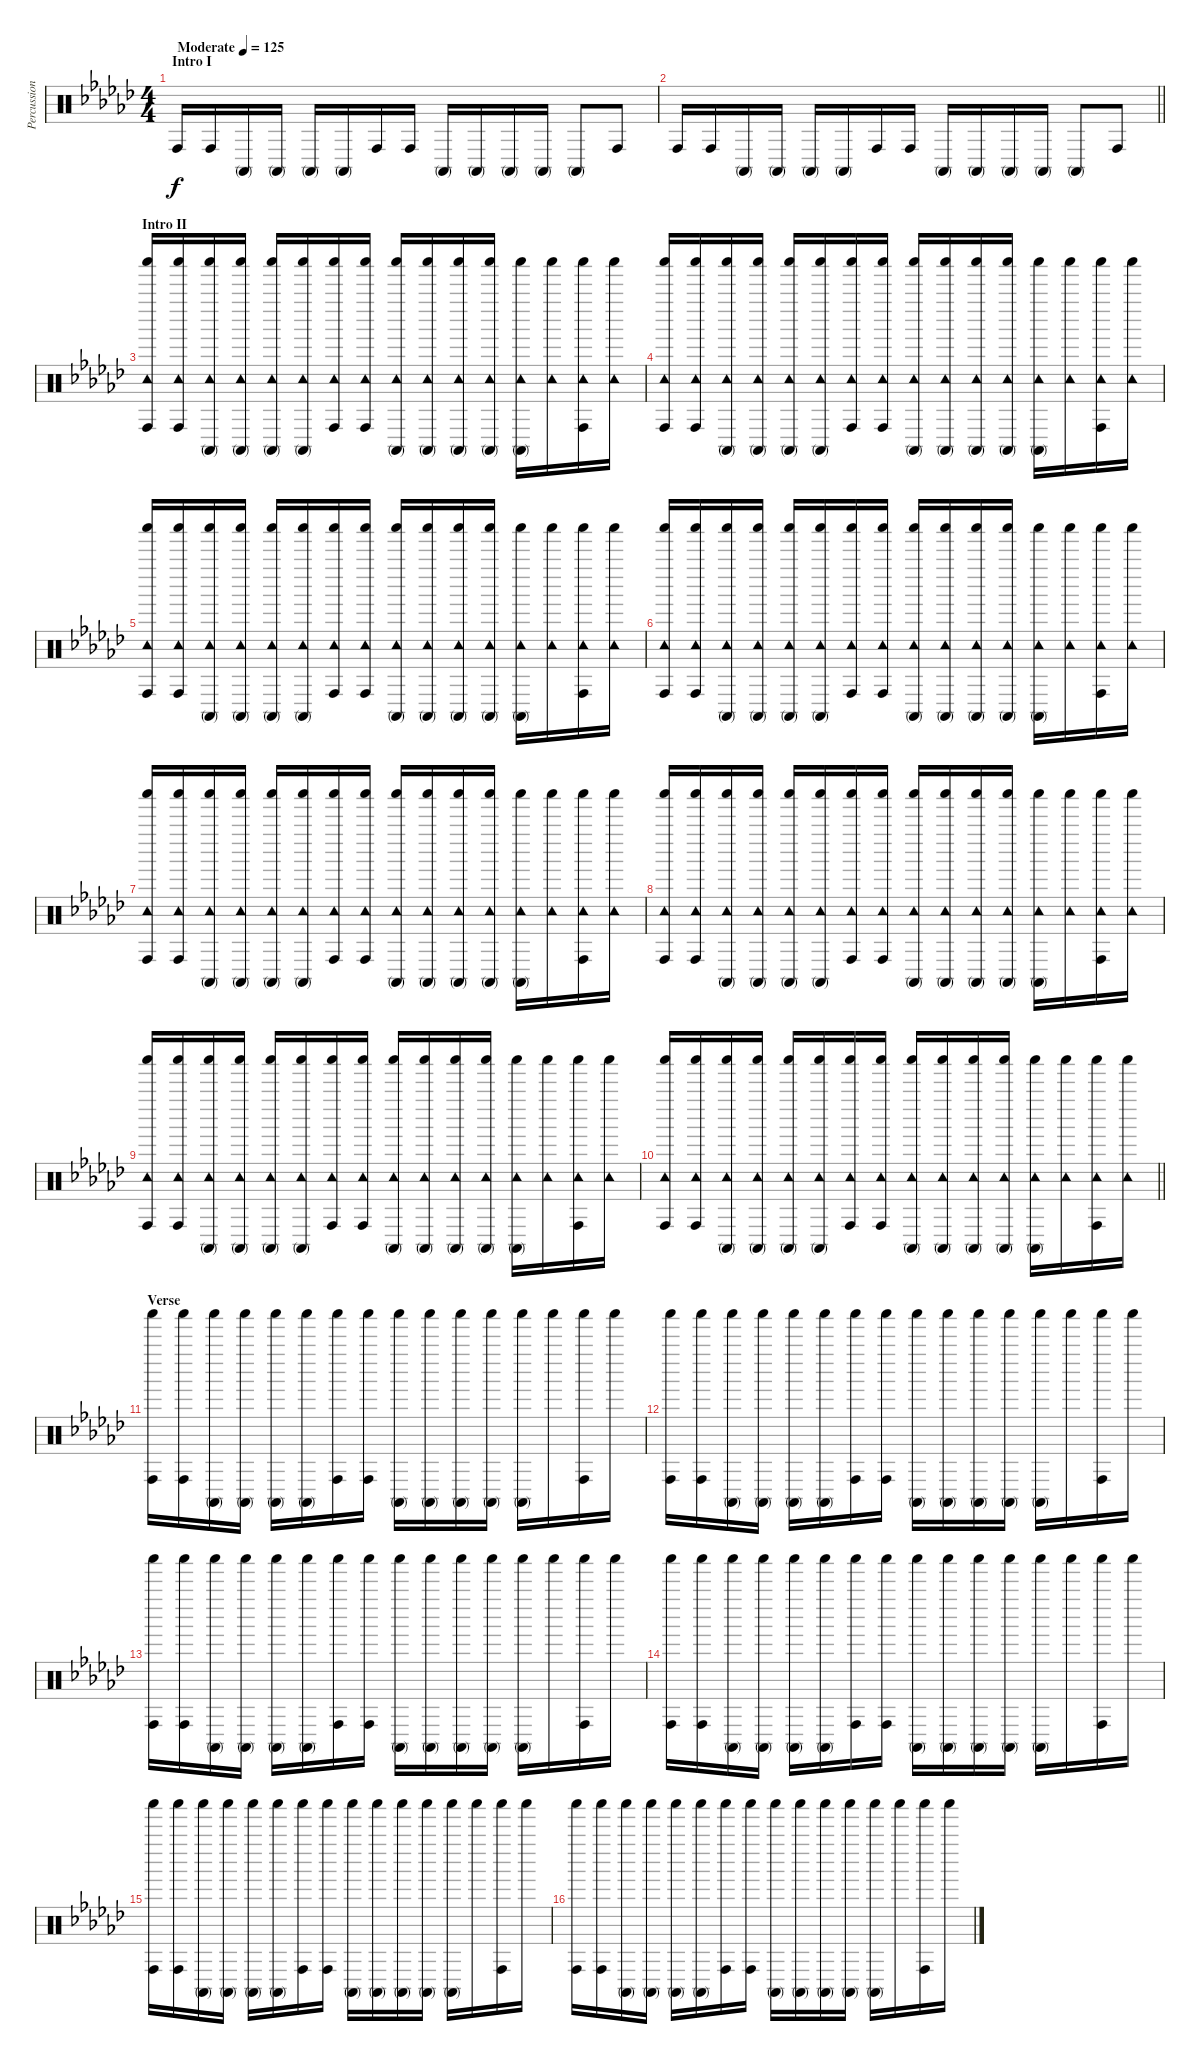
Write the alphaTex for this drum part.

\track ("Percussion" "Percussion") {instrument percussion}
\staff {score}
\articulation defaults
\ts (4 4)
\section ("" "Intro I")
\tempo (125 "Moderate")
\clef neutral
\ks gb "Conga high (hit)".16{dy f} "Conga high (hit)".16 "Conga high (mute)".16 "Conga high (mute)".16 "Conga high (mute)".16 "Conga high (mute)".16 "Conga high (hit)".16 "Conga high (hit)".16 "Conga high (mute)".16 "Conga high (mute)".16 "Conga high (mute)".16 "Conga high (mute)".16 "Conga high (mute)".8 "Conga high (hit)".8
|
\barLineRight lightlight "Conga high (hit)".16 "Conga high (hit)".16 "Conga high (mute)".16 "Conga high (mute)".16 "Conga high (mute)".16 "Conga high (mute)".16 "Conga high (hit)".16 "Conga high (hit)".16 "Conga high (mute)".16 "Conga high (mute)".16 "Conga high (mute)".16 "Conga high (mute)".16 "Conga high (mute)".8 "Conga high (hit)".8
|
\section ("" "Intro II")
("Shaker (hit)" "Tambourine (hit)" "Conga high (hit)").16 ("Shaker (hit)" "Tambourine (hit)" "Conga high (hit)").16 ("Shaker (hit)" "Tambourine (hit)" "Conga high (mute)").16 ("Shaker (hit)" "Tambourine (hit)" "Conga high (mute)").16 ("Shaker (hit)" "Tambourine (hit)" "Conga high (mute)").16 ("Shaker (hit)" "Tambourine (hit)" "Conga high (mute)").16 ("Shaker (hit)" "Tambourine (hit)" "Conga high (hit)").16 ("Shaker (hit)" "Tambourine (hit)" "Conga high (hit)").16 ("Shaker (hit)" "Tambourine (hit)" "Conga high (mute)").16 ("Shaker (hit)" "Tambourine (hit)" "Conga high (mute)").16 ("Shaker (hit)" "Tambourine (hit)" "Conga high (mute)").16 ("Shaker (hit)" "Tambourine (hit)" "Conga high (mute)").16 ("Shaker (hit)" "Tambourine (hit)" "Conga high (mute)").16 ("Shaker (hit)" "Tambourine (hit)").16 ("Shaker (hit)" "Tambourine (hit)" "Conga high (hit)").16 ("Shaker (hit)" "Tambourine (hit)").16 |
("Shaker (hit)" "Tambourine (hit)" "Conga high (hit)").16 ("Shaker (hit)" "Tambourine (hit)" "Conga high (hit)").16 ("Shaker (hit)" "Tambourine (hit)" "Conga high (mute)").16 ("Shaker (hit)" "Tambourine (hit)" "Conga high (mute)").16 ("Shaker (hit)" "Tambourine (hit)" "Conga high (mute)").16 ("Shaker (hit)" "Tambourine (hit)" "Conga high (mute)").16 ("Shaker (hit)" "Tambourine (hit)" "Conga high (hit)").16 ("Shaker (hit)" "Tambourine (hit)" "Conga high (hit)").16 ("Shaker (hit)" "Tambourine (hit)" "Conga high (mute)").16 ("Shaker (hit)" "Tambourine (hit)" "Conga high (mute)").16 ("Shaker (hit)" "Tambourine (hit)" "Conga high (mute)").16 ("Shaker (hit)" "Tambourine (hit)" "Conga high (mute)").16 ("Shaker (hit)" "Tambourine (hit)" "Conga high (mute)").16 ("Shaker (hit)" "Tambourine (hit)").16 ("Shaker (hit)" "Tambourine (hit)" "Conga high (hit)").16 ("Shaker (hit)" "Tambourine (hit)").16 |
("Shaker (hit)" "Tambourine (hit)" "Conga high (hit)").16 ("Shaker (hit)" "Tambourine (hit)" "Conga high (hit)").16 ("Shaker (hit)" "Tambourine (hit)" "Conga high (mute)").16 ("Shaker (hit)" "Tambourine (hit)" "Conga high (mute)").16 ("Shaker (hit)" "Tambourine (hit)" "Conga high (mute)").16 ("Shaker (hit)" "Tambourine (hit)" "Conga high (mute)").16 ("Shaker (hit)" "Tambourine (hit)" "Conga high (hit)").16 ("Shaker (hit)" "Tambourine (hit)" "Conga high (hit)").16 ("Shaker (hit)" "Tambourine (hit)" "Conga high (mute)").16 ("Shaker (hit)" "Tambourine (hit)" "Conga high (mute)").16 ("Shaker (hit)" "Tambourine (hit)" "Conga high (mute)").16 ("Shaker (hit)" "Tambourine (hit)" "Conga high (mute)").16 ("Shaker (hit)" "Tambourine (hit)" "Conga high (mute)").16 ("Shaker (hit)" "Tambourine (hit)").16 ("Shaker (hit)" "Tambourine (hit)" "Conga high (hit)").16 ("Shaker (hit)" "Tambourine (hit)").16 |
("Shaker (hit)" "Tambourine (hit)" "Conga high (hit)").16 ("Shaker (hit)" "Tambourine (hit)" "Conga high (hit)").16 ("Shaker (hit)" "Tambourine (hit)" "Conga high (mute)").16 ("Shaker (hit)" "Tambourine (hit)" "Conga high (mute)").16 ("Shaker (hit)" "Tambourine (hit)" "Conga high (mute)").16 ("Shaker (hit)" "Tambourine (hit)" "Conga high (mute)").16 ("Shaker (hit)" "Tambourine (hit)" "Conga high (hit)").16 ("Shaker (hit)" "Tambourine (hit)" "Conga high (hit)").16 ("Shaker (hit)" "Tambourine (hit)" "Conga high (mute)").16 ("Shaker (hit)" "Tambourine (hit)" "Conga high (mute)").16 ("Shaker (hit)" "Tambourine (hit)" "Conga high (mute)").16 ("Shaker (hit)" "Tambourine (hit)" "Conga high (mute)").16 ("Shaker (hit)" "Tambourine (hit)" "Conga high (mute)").16 ("Shaker (hit)" "Tambourine (hit)").16 ("Shaker (hit)" "Tambourine (hit)" "Conga high (hit)").16 ("Shaker (hit)" "Tambourine (hit)").16 |
("Shaker (hit)" "Tambourine (hit)" "Conga high (hit)").16 ("Shaker (hit)" "Tambourine (hit)" "Conga high (hit)").16 ("Shaker (hit)" "Tambourine (hit)" "Conga high (mute)").16 ("Shaker (hit)" "Tambourine (hit)" "Conga high (mute)").16 ("Shaker (hit)" "Tambourine (hit)" "Conga high (mute)").16 ("Shaker (hit)" "Tambourine (hit)" "Conga high (mute)").16 ("Shaker (hit)" "Tambourine (hit)" "Conga high (hit)").16 ("Shaker (hit)" "Tambourine (hit)" "Conga high (hit)").16 ("Shaker (hit)" "Tambourine (hit)" "Conga high (mute)").16 ("Shaker (hit)" "Tambourine (hit)" "Conga high (mute)").16 ("Shaker (hit)" "Tambourine (hit)" "Conga high (mute)").16 ("Shaker (hit)" "Tambourine (hit)" "Conga high (mute)").16 ("Shaker (hit)" "Tambourine (hit)" "Conga high (mute)").16 ("Shaker (hit)" "Tambourine (hit)").16 ("Shaker (hit)" "Tambourine (hit)" "Conga high (hit)").16 ("Shaker (hit)" "Tambourine (hit)").16 |
("Shaker (hit)" "Tambourine (hit)" "Conga high (hit)").16 ("Shaker (hit)" "Tambourine (hit)" "Conga high (hit)").16 ("Shaker (hit)" "Tambourine (hit)" "Conga high (mute)").16 ("Shaker (hit)" "Tambourine (hit)" "Conga high (mute)").16 ("Shaker (hit)" "Tambourine (hit)" "Conga high (mute)").16 ("Shaker (hit)" "Tambourine (hit)" "Conga high (mute)").16 ("Shaker (hit)" "Tambourine (hit)" "Conga high (hit)").16 ("Shaker (hit)" "Tambourine (hit)" "Conga high (hit)").16 ("Shaker (hit)" "Tambourine (hit)" "Conga high (mute)").16 ("Shaker (hit)" "Tambourine (hit)" "Conga high (mute)").16 ("Shaker (hit)" "Tambourine (hit)" "Conga high (mute)").16 ("Shaker (hit)" "Tambourine (hit)" "Conga high (mute)").16 ("Shaker (hit)" "Tambourine (hit)" "Conga high (mute)").16 ("Shaker (hit)" "Tambourine (hit)").16 ("Shaker (hit)" "Tambourine (hit)" "Conga high (hit)").16 ("Shaker (hit)" "Tambourine (hit)").16 |
("Shaker (hit)" "Tambourine (hit)" "Conga high (hit)").16 ("Shaker (hit)" "Tambourine (hit)" "Conga high (hit)").16 ("Shaker (hit)" "Tambourine (hit)" "Conga high (mute)").16 ("Shaker (hit)" "Tambourine (hit)" "Conga high (mute)").16 ("Shaker (hit)" "Tambourine (hit)" "Conga high (mute)").16 ("Shaker (hit)" "Tambourine (hit)" "Conga high (mute)").16 ("Shaker (hit)" "Tambourine (hit)" "Conga high (hit)").16 ("Shaker (hit)" "Tambourine (hit)" "Conga high (hit)").16 ("Shaker (hit)" "Tambourine (hit)" "Conga high (mute)").16 ("Shaker (hit)" "Tambourine (hit)" "Conga high (mute)").16 ("Shaker (hit)" "Tambourine (hit)" "Conga high (mute)").16 ("Shaker (hit)" "Tambourine (hit)" "Conga high (mute)").16 ("Shaker (hit)" "Tambourine (hit)" "Conga high (mute)").16 ("Shaker (hit)" "Tambourine (hit)").16 ("Shaker (hit)" "Tambourine (hit)" "Conga high (hit)").16 ("Shaker (hit)" "Tambourine (hit)").16 |
\barLineRight lightlight
("Shaker (hit)" "Tambourine (hit)" "Conga high (hit)").16 ("Shaker (hit)" "Tambourine (hit)" "Conga high (hit)").16 ("Shaker (hit)" "Tambourine (hit)" "Conga high (mute)").16 ("Shaker (hit)" "Tambourine (hit)" "Conga high (mute)").16 ("Shaker (hit)" "Tambourine (hit)" "Conga high (mute)").16 ("Shaker (hit)" "Tambourine (hit)" "Conga high (mute)").16 ("Shaker (hit)" "Tambourine (hit)" "Conga high (hit)").16 ("Shaker (hit)" "Tambourine (hit)" "Conga high (hit)").16 ("Shaker (hit)" "Tambourine (hit)" "Conga high (mute)").16 ("Shaker (hit)" "Tambourine (hit)" "Conga high (mute)").16 ("Shaker (hit)" "Tambourine (hit)" "Conga high (mute)").16 ("Shaker (hit)" "Tambourine (hit)" "Conga high (mute)").16 ("Shaker (hit)" "Tambourine (hit)" "Conga high (mute)").16 ("Shaker (hit)" "Tambourine (hit)").16 ("Shaker (hit)" "Tambourine (hit)" "Conga high (hit)").16 ("Shaker (hit)" "Tambourine (hit)").16 |
\section ("" "Verse")
("Shaker (hit)" "Conga high (hit)").16 ("Shaker (hit)" "Conga high (hit)").16 ("Shaker (hit)" "Conga high (mute)").16 ("Shaker (hit)" "Conga high (mute)").16 ("Shaker (hit)" "Conga high (mute)").16 ("Shaker (hit)" "Conga high (mute)").16 ("Shaker (hit)" "Conga high (hit)").16 ("Shaker (hit)" "Conga high (hit)").16 ("Shaker (hit)" "Conga high (mute)").16 ("Shaker (hit)" "Conga high (mute)").16 ("Shaker (hit)" "Conga high (mute)").16 ("Shaker (hit)" "Conga high (mute)").16 ("Shaker (hit)" "Conga high (mute)").16 "Shaker (hit)".16 ("Shaker (hit)" "Conga high (hit)").16 "Shaker (hit)".16 |
("Shaker (hit)" "Conga high (hit)").16 ("Shaker (hit)" "Conga high (hit)").16 ("Shaker (hit)" "Conga high (mute)").16 ("Shaker (hit)" "Conga high (mute)").16 ("Shaker (hit)" "Conga high (mute)").16 ("Shaker (hit)" "Conga high (mute)").16 ("Shaker (hit)" "Conga high (hit)").16 ("Shaker (hit)" "Conga high (hit)").16 ("Shaker (hit)" "Conga high (mute)").16 ("Shaker (hit)" "Conga high (mute)").16 ("Shaker (hit)" "Conga high (mute)").16 ("Shaker (hit)" "Conga high (mute)").16 ("Shaker (hit)" "Conga high (mute)").16 "Shaker (hit)".16 ("Shaker (hit)" "Conga high (hit)").16 "Shaker (hit)".16 |
("Shaker (hit)" "Conga high (hit)").16 ("Shaker (hit)" "Conga high (hit)").16 ("Shaker (hit)" "Conga high (mute)").16 ("Shaker (hit)" "Conga high (mute)").16 ("Shaker (hit)" "Conga high (mute)").16 ("Shaker (hit)" "Conga high (mute)").16 ("Shaker (hit)" "Conga high (hit)").16 ("Shaker (hit)" "Conga high (hit)").16 ("Shaker (hit)" "Conga high (mute)").16 ("Shaker (hit)" "Conga high (mute)").16 ("Shaker (hit)" "Conga high (mute)").16 ("Shaker (hit)" "Conga high (mute)").16 ("Shaker (hit)" "Conga high (mute)").16 "Shaker (hit)".16 ("Shaker (hit)" "Conga high (hit)").16 "Shaker (hit)".16 |
("Shaker (hit)" "Conga high (hit)").16 ("Shaker (hit)" "Conga high (hit)").16 ("Shaker (hit)" "Conga high (mute)").16 ("Shaker (hit)" "Conga high (mute)").16 ("Shaker (hit)" "Conga high (mute)").16 ("Shaker (hit)" "Conga high (mute)").16 ("Shaker (hit)" "Conga high (hit)").16 ("Shaker (hit)" "Conga high (hit)").16 ("Shaker (hit)" "Conga high (mute)").16 ("Shaker (hit)" "Conga high (mute)").16 ("Shaker (hit)" "Conga high (mute)").16 ("Shaker (hit)" "Conga high (mute)").16 ("Shaker (hit)" "Conga high (mute)").16 "Shaker (hit)".16 ("Shaker (hit)" "Conga high (hit)").16 "Shaker (hit)".16 |
("Shaker (hit)" "Conga high (hit)").16 ("Shaker (hit)" "Conga high (hit)").16 ("Shaker (hit)" "Conga high (mute)").16 ("Shaker (hit)" "Conga high (mute)").16 ("Shaker (hit)" "Conga high (mute)").16 ("Shaker (hit)" "Conga high (mute)").16 ("Shaker (hit)" "Conga high (hit)").16 ("Shaker (hit)" "Conga high (hit)").16 ("Shaker (hit)" "Conga high (mute)").16 ("Shaker (hit)" "Conga high (mute)").16 ("Shaker (hit)" "Conga high (mute)").16 ("Shaker (hit)" "Conga high (mute)").16 ("Shaker (hit)" "Conga high (mute)").16 "Shaker (hit)".16 ("Shaker (hit)" "Conga high (hit)").16 "Shaker (hit)".16 |
("Shaker (hit)" "Conga high (hit)").16 ("Shaker (hit)" "Conga high (hit)").16 ("Shaker (hit)" "Conga high (mute)").16 ("Shaker (hit)" "Conga high (mute)").16 ("Shaker (hit)" "Conga high (mute)").16 ("Shaker (hit)" "Conga high (mute)").16 ("Shaker (hit)" "Conga high (hit)").16 ("Shaker (hit)" "Conga high (hit)").16 ("Shaker (hit)" "Conga high (mute)").16 ("Shaker (hit)" "Conga high (mute)").16 ("Shaker (hit)" "Conga high (mute)").16 ("Shaker (hit)" "Conga high (mute)").16 ("Shaker (hit)" "Conga high (mute)").16 "Shaker (hit)".16 ("Shaker (hit)" "Conga high (hit)").16 "Shaker (hit)".16
